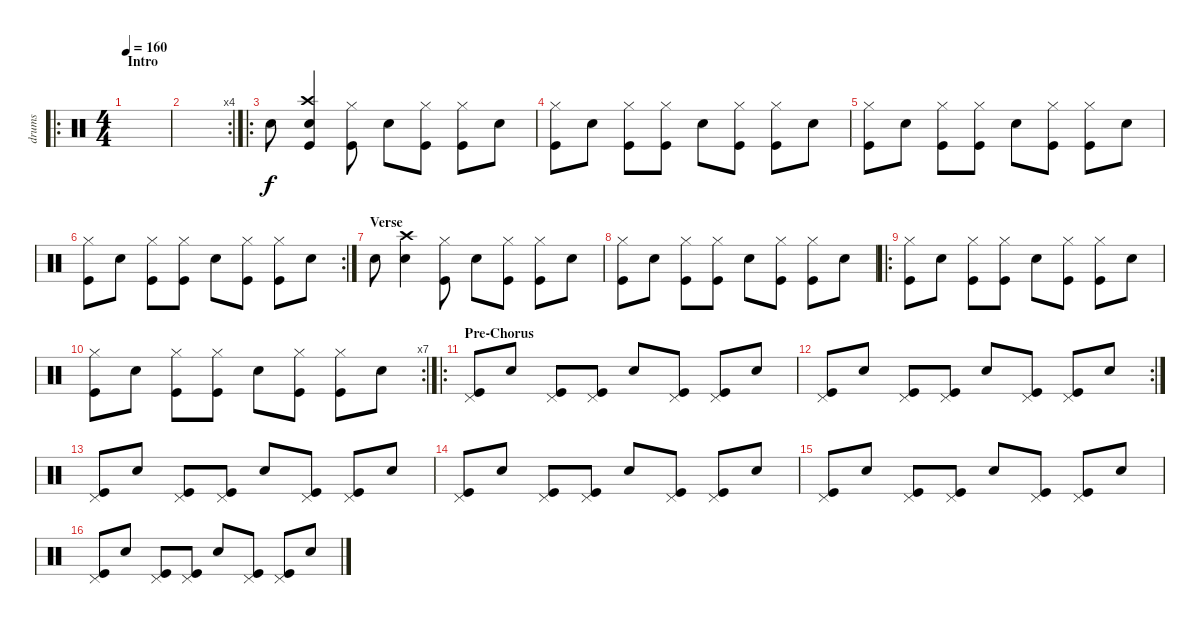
\track ("drums" "drums") {instrument percussion}
\staff {score}
\articulation defaults
\ro
\ts (4 4)
\section ("" "Intro")
\tempo 160
\clef neutral
\ks c
|
\rc 4
|
\ro "Electric Snare (hit)".8
("Crash high (hit)" "Electric Snare (hit)" "Kick (hit)").4 ("Hi-Hat (closed)" "Kick (hit)").8 "Electric Snare (hit)".8 ("Hi-Hat (closed)" "Kick (hit)").8 ("Hi-Hat (closed)" "Kick (hit)").8 "Electric Snare (hit)".8 |
("Hi-Hat (closed)" "Kick (hit)").8 "Electric Snare (hit)".8 ("Hi-Hat (closed)" "Kick (hit)").8 ("Hi-Hat (closed)" "Kick (hit)").8 "Electric Snare (hit)".8 ("Hi-Hat (closed)" "Kick (hit)").8 ("Hi-Hat (closed)" "Kick (hit)").8 "Electric Snare (hit)".8 |
("Hi-Hat (closed)" "Kick (hit)").8 "Electric Snare (hit)".8 ("Hi-Hat (closed)" "Kick (hit)").8 ("Hi-Hat (closed)" "Kick (hit)").8 "Electric Snare (hit)".8 ("Hi-Hat (closed)" "Kick (hit)").8 ("Hi-Hat (closed)" "Kick (hit)").8 "Electric Snare (hit)".8 |
\rc 2
("Hi-Hat (closed)" "Kick (hit)").8 "Electric Snare (hit)".8 ("Hi-Hat (closed)" "Kick (hit)").8 ("Hi-Hat (closed)" "Kick (hit)").8 "Electric Snare (hit)".8 ("Hi-Hat (closed)" "Kick (hit)").8 ("Hi-Hat (closed)" "Kick (hit)").8 "Electric Snare (hit)".8 |
\section ("" "Verse")
"Electric Snare (hit)".8 ("Crash high (hit)" "Electric Snare (hit)").4 ("Hi-Hat (closed)" "Kick (hit)").8 "Electric Snare (hit)".8 ("Hi-Hat (closed)" "Kick (hit)").8 ("Hi-Hat (closed)" "Kick (hit)").8 "Electric Snare (hit)".8 |
("Hi-Hat (closed)" "Kick (hit)").8 "Electric Snare (hit)".8 ("Hi-Hat (closed)" "Kick (hit)").8 ("Hi-Hat (closed)" "Kick (hit)").8 "Electric Snare (hit)".8 ("Hi-Hat (closed)" "Kick (hit)").8 ("Hi-Hat (closed)" "Kick (hit)").8 "Electric Snare (hit)".8 |
\ro
("Hi-Hat (closed)" "Kick (hit)").8 "Electric Snare (hit)".8 ("Hi-Hat (closed)" "Kick (hit)").8 ("Hi-Hat (closed)" "Kick (hit)").8 "Electric Snare (hit)".8 ("Hi-Hat (closed)" "Kick (hit)").8 ("Hi-Hat (closed)" "Kick (hit)").8 "Electric Snare (hit)".8 |
\rc 7
("Hi-Hat (closed)" "Kick (hit)").8 "Electric Snare (hit)".8 ("Hi-Hat (closed)" "Kick (hit)").8 ("Hi-Hat (closed)" "Kick (hit)").8 "Electric Snare (hit)".8 ("Hi-Hat (closed)" "Kick (hit)").8 ("Hi-Hat (closed)" "Kick (hit)").8 "Electric Snare (hit)".8 |
\ro
\section ("" "Pre-Chorus")
("Pedal Hi-Hat (hit)" "Kick (hit)").8 "Electric Snare (hit)".8 ("Pedal Hi-Hat (hit)" "Kick (hit)").8 ("Pedal Hi-Hat (hit)" "Kick (hit)").8 "Electric Snare (hit)".8 ("Pedal Hi-Hat (hit)" "Kick (hit)").8 ("Pedal Hi-Hat (hit)" "Kick (hit)").8 "Electric Snare (hit)".8 |
\rc 2
("Pedal Hi-Hat (hit)" "Kick (hit)").8 "Electric Snare (hit)".8 ("Pedal Hi-Hat (hit)" "Kick (hit)").8 ("Pedal Hi-Hat (hit)" "Kick (hit)").8 "Electric Snare (hit)".8 ("Pedal Hi-Hat (hit)" "Kick (hit)").8 ("Pedal Hi-Hat (hit)" "Kick (hit)").8 "Electric Snare (hit)".8 |
("Pedal Hi-Hat (hit)" "Kick (hit)").8 "Electric Snare (hit)".8 ("Pedal Hi-Hat (hit)" "Kick (hit)").8 ("Pedal Hi-Hat (hit)" "Kick (hit)").8 "Electric Snare (hit)".8 ("Pedal Hi-Hat (hit)" "Kick (hit)").8 ("Pedal Hi-Hat (hit)" "Kick (hit)").8 "Electric Snare (hit)".8 |
("Pedal Hi-Hat (hit)" "Kick (hit)").8 "Electric Snare (hit)".8 ("Pedal Hi-Hat (hit)" "Kick (hit)").8 ("Pedal Hi-Hat (hit)" "Kick (hit)").8 "Electric Snare (hit)".8 ("Pedal Hi-Hat (hit)" "Kick (hit)").8 ("Pedal Hi-Hat (hit)" "Kick (hit)").8 "Electric Snare (hit)".8 |
("Pedal Hi-Hat (hit)" "Kick (hit)").8 "Electric Snare (hit)".8 ("Pedal Hi-Hat (hit)" "Kick (hit)").8 ("Pedal Hi-Hat (hit)" "Kick (hit)").8 "Electric Snare (hit)".8 ("Pedal Hi-Hat (hit)" "Kick (hit)").8 ("Pedal Hi-Hat (hit)" "Kick (hit)").8 "Electric Snare (hit)".8 |
("Pedal Hi-Hat (hit)" "Kick (hit)").8 "Electric Snare (hit)".8 ("Pedal Hi-Hat (hit)" "Kick (hit)").8 ("Pedal Hi-Hat (hit)" "Kick (hit)").8 "Electric Snare (hit)".8 ("Pedal Hi-Hat (hit)" "Kick (hit)").8 ("Pedal Hi-Hat (hit)" "Kick (hit)").8 "Electric Snare (hit)".8
